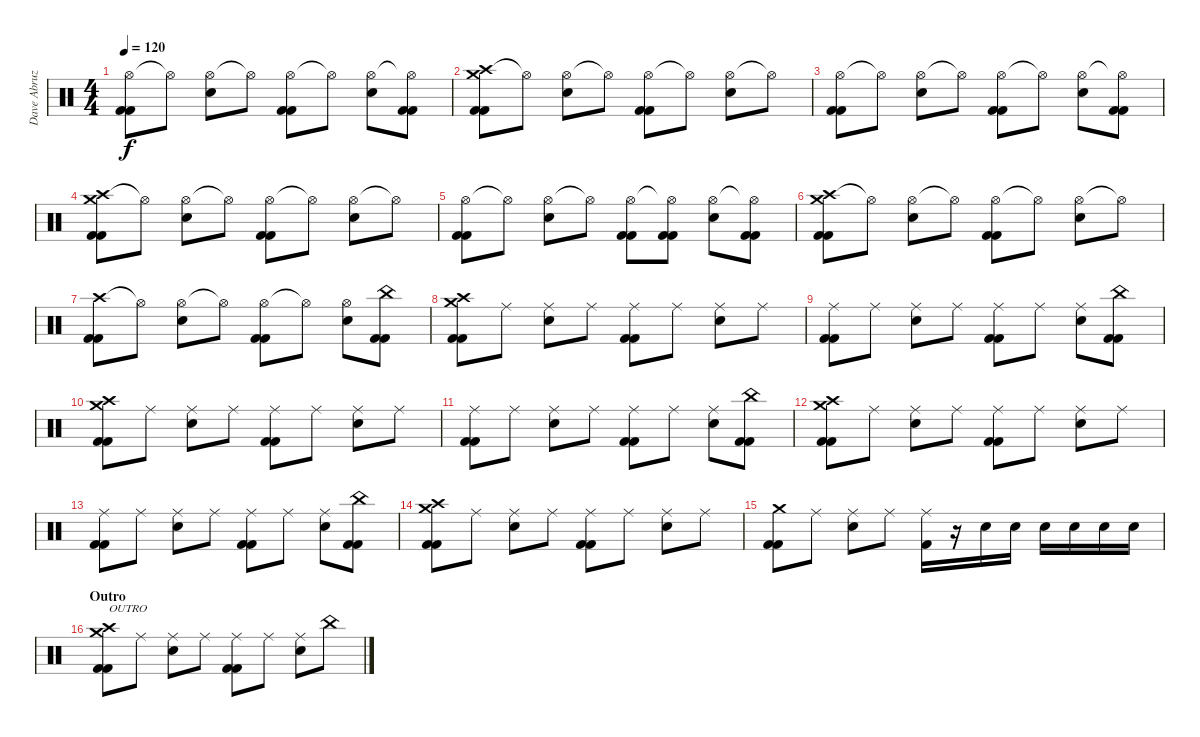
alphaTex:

\track ("Dave Abruzzese" "Dave Abruz") {instrument percussion}
\staff {score}
\articulation defaults
\ts (4 4)
\tempo 120
\clef neutral
\ks c
("Hi-Hat (open)" "Kick (hit) 2" "Kick (hit) 2").8{dy f} "Hi-Hat (open)"{t}.8 ("Hi-Hat (open)" "Electric Snare (hit)").8 "Hi-Hat (open)"{t}.8 ("Hi-Hat (open)" "Kick (hit) 2" "Kick (hit) 2").8 "Hi-Hat (open)"{t}.8 ("Hi-Hat (open)" "Electric Snare (hit)").8 ("Hi-Hat (open)"{t} "Kick (hit) 2" "Kick (hit) 2").8 |
("Crash high (hit)" "Crash medium (hit)" "Kick (hit) 2" "Kick (hit) 2").8 "Hi-Hat (open)"{t}.8 ("Hi-Hat (open)" "Electric Snare (hit)").8 "Hi-Hat (open)"{t}.8 ("Hi-Hat (open)" "Kick (hit) 2" "Kick (hit) 2").8 "Hi-Hat (open)"{t}.8 ("Hi-Hat (open)" "Electric Snare (hit)").8 "Hi-Hat (open)"{t}.8 |
("Hi-Hat (open)" "Kick (hit) 2" "Kick (hit) 2").8 "Hi-Hat (open)"{t}.8 ("Hi-Hat (open)" "Electric Snare (hit)").8 "Hi-Hat (open)"{t}.8 ("Hi-Hat (open)" "Kick (hit) 2" "Kick (hit) 2").8 "Hi-Hat (open)"{t}.8 ("Hi-Hat (open)" "Electric Snare (hit)").8 ("Hi-Hat (open)"{t} "Kick (hit) 2" "Kick (hit) 2").8 |
("Crash high (hit)" "Crash medium (hit)" "Kick (hit) 2" "Kick (hit) 2").8 "Hi-Hat (open)"{t}.8 ("Hi-Hat (open)" "Electric Snare (hit)").8 "Hi-Hat (open)"{t}.8 ("Hi-Hat (open)" "Kick (hit) 2" "Kick (hit) 2").8 "Hi-Hat (open)"{t}.8 ("Hi-Hat (open)" "Electric Snare (hit)").8 "Hi-Hat (open)"{t}.8 |
("Hi-Hat (open)" "Kick (hit) 2" "Kick (hit) 2").8 "Hi-Hat (open)"{t}.8 ("Hi-Hat (open)" "Electric Snare (hit)").8 "Hi-Hat (open)"{t}.8 ("Hi-Hat (open)" "Kick (hit) 2" "Kick (hit) 2").8 ("Hi-Hat (open)"{t} "Kick (hit) 2" "Kick (hit) 2").8 ("Hi-Hat (open)" "Electric Snare (hit)").8 ("Hi-Hat (open)"{t} "Kick (hit) 2" "Kick (hit) 2").8 |
("Crash high (hit)" "Crash medium (hit)" "Kick (hit) 2" "Kick (hit) 2").8 "Hi-Hat (open)"{t}.8 ("Hi-Hat (open)" "Electric Snare (hit)").8 "Hi-Hat (open)"{t}.8 ("Hi-Hat (open)" "Kick (hit) 2" "Kick (hit) 2").8 "Hi-Hat (open)"{t}.8 ("Hi-Hat (open)" "Electric Snare (hit)").8 "Hi-Hat (open)"{t}.8 |
("Crash high (hit)" "Kick (hit) 2" "Kick (hit) 2").8 "Hi-Hat (open)"{t}.8 ("Hi-Hat (open)" "Electric Snare (hit)").8 "Hi-Hat (open)"{t}.8 ("Hi-Hat (open)" "Kick (hit) 2" "Kick (hit) 2").8 "Hi-Hat (open)"{t}.8 ("Hi-Hat (open)" "Electric Snare (hit)").8 ("China (hit)" "Kick (hit) 2" "Kick (hit) 2").8 |
("Crash high (hit)" "Crash medium (hit)" "Kick (hit) 2" "Kick (hit) 2").8 "Ride (middle)".8 ("Ride (middle)" "Electric Snare (hit)").8 "Ride (middle)".8 ("Ride (middle)" "Kick (hit) 2" "Kick (hit) 2").8 "Ride (middle)".8 ("Ride (middle)" "Electric Snare (hit)").8 "Ride (middle)".8 |
("Ride (middle)" "Kick (hit) 2" "Kick (hit) 2").8 "Ride (middle)".8 ("Ride (middle)" "Electric Snare (hit)").8 "Ride (middle)".8 ("Ride (middle)" "Kick (hit) 2" "Kick (hit) 2").8 "Ride (middle)".8 ("Ride (middle)" "Electric Snare (hit)").8 ("China (hit)" "Kick (hit) 2" "Kick (hit) 2").8 |
("Crash high (hit)" "Crash medium (hit)" "Kick (hit) 2" "Kick (hit) 2").8 "Ride (middle)".8 ("Ride (middle)" "Electric Snare (hit)").8 "Ride (middle)".8 ("Ride (middle)" "Kick (hit) 2" "Kick (hit) 2").8 "Ride (middle)".8 ("Ride (middle)" "Electric Snare (hit)").8 "Ride (middle)".8 |
("Ride (middle)" "Kick (hit) 2" "Kick (hit) 2").8 "Ride (middle)".8 ("Ride (middle)" "Electric Snare (hit)").8 "Ride (middle)".8 ("Ride (middle)" "Kick (hit) 2" "Kick (hit) 2").8 "Ride (middle)".8 ("Ride (middle)" "Electric Snare (hit)").8 ("China (hit)" "Kick (hit) 2" "Kick (hit) 2").8 |
("Crash high (hit)" "Crash medium (hit)" "Kick (hit) 2" "Kick (hit) 2").8 "Ride (middle)".8 ("Ride (middle)" "Electric Snare (hit)").8 "Ride (middle)".8 ("Ride (middle)" "Kick (hit) 2" "Kick (hit) 2").8 "Ride (middle)".8 ("Ride (middle)" "Electric Snare (hit)").8 "Ride (middle)".8 |
("Ride (middle)" "Kick (hit) 2" "Kick (hit) 2").8 "Ride (middle)".8 ("Ride (middle)" "Electric Snare (hit)").8 "Ride (middle)".8 ("Ride (middle)" "Kick (hit) 2" "Kick (hit) 2").8 "Ride (middle)".8 ("Ride (middle)" "Electric Snare (hit)").8 ("China (hit)" "Kick (hit) 2" "Kick (hit) 2").8 |
("Crash high (hit)" "Crash medium (hit)" "Kick (hit) 2" "Kick (hit) 2").8 "Ride (middle)".8 ("Ride (middle)" "Electric Snare (hit)").8 "Ride (middle)".8 ("Ride (middle)" "Kick (hit) 2" "Kick (hit) 2").8 "Ride (middle)".8 ("Ride (middle)" "Electric Snare (hit)").8 "Ride (middle)".8 |
("Crash medium (hit)" "Kick (hit) 2" "Kick (hit) 2").8 "Ride (middle)".8 ("Ride (middle)" "Electric Snare (hit)").8 "Ride (middle)".8 ("Ride (middle)" "Kick (hit) 2").16 r.16 "Electric Snare (hit)".16 "Electric Snare (hit)".16 "Electric Snare (hit)".16 "Electric Snare (hit)".16 "Electric Snare (hit)".16 "Electric Snare (hit)".16 |
\section ("" "Outro")
("Crash high (hit)" "Crash medium (hit)" "Kick (hit) 2" "Kick (hit) 2").8{txt "OUTRO"} "Ride (middle)".8 ("Ride (middle)" "Electric Snare (hit)").8 "Ride (middle)".8 ("Ride (middle)" "Kick (hit) 2" "Kick (hit) 2").8 "Ride (middle)".8 ("Ride (middle)" "Electric Snare (hit)").8 "China (hit)".8
